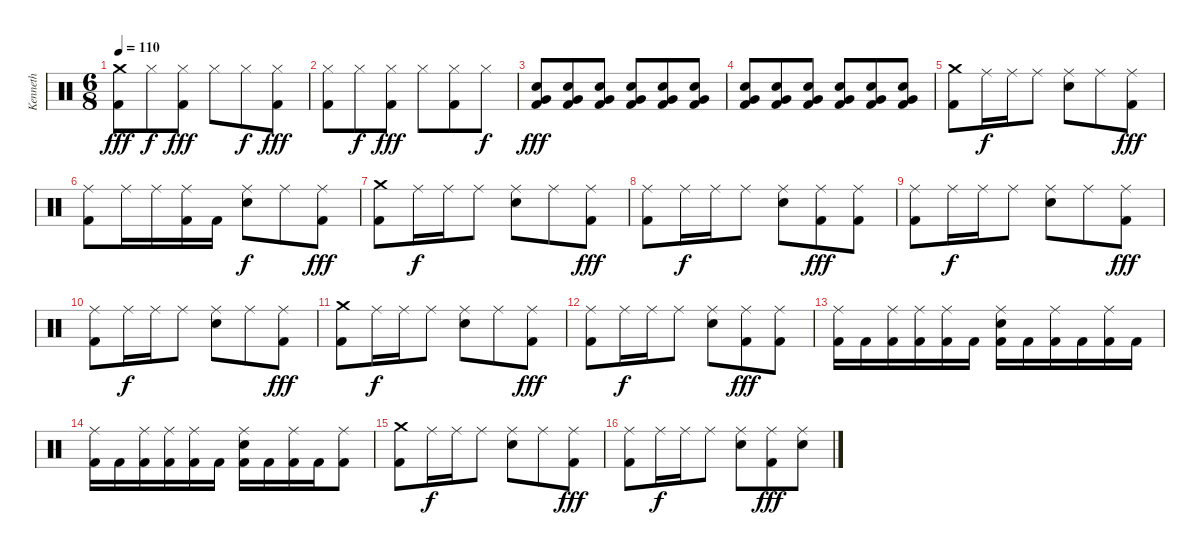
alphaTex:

\track ("Kenneth" "Kenneth") {instrument percussion}
\staff {score}
\articulation defaults
\ts (6 8)
\tempo 110
\clef neutral
\ks c
("Crash medium (hit)" "Kick (hit) 2").8{dy fff} "Hi-Hat (closed)".8{dy f} ("Hi-Hat (closed)" "Kick (hit) 2").8{dy fff} "Hi-Hat (closed)".8 "Hi-Hat (closed)".8{dy f} ("Hi-Hat (closed)" "Kick (hit) 2").8{dy fff} |
("Hi-Hat (closed)" "Kick (hit) 2").8 "Hi-Hat (closed)".8{dy f} ("Hi-Hat (closed)" "Kick (hit) 2").8{dy fff} "Hi-Hat (closed)".8 ("Hi-Hat (closed)" "Kick (hit) 2").8 "Hi-Hat (closed)".8{dy f} |
("Electric Snare (hit)" "Very Low Tom (hit)" "Kick (hit) 2").8{dy fff} ("Electric Snare (hit)" "Very Low Tom (hit)" "Kick (hit) 2").8 ("Electric Snare (hit)" "Very Low Tom (hit)" "Kick (hit) 2").8 ("Electric Snare (hit)" "Very Low Tom (hit)" "Kick (hit) 2").8 ("Electric Snare (hit)" "Very Low Tom (hit)" "Kick (hit) 2").8 ("Electric Snare (hit)" "Very Low Tom (hit)" "Kick (hit) 2").8 |
("Electric Snare (hit)" "Very Low Tom (hit)" "Kick (hit) 2").8 ("Electric Snare (hit)" "Very Low Tom (hit)" "Kick (hit) 2").8 ("Electric Snare (hit)" "Very Low Tom (hit)" "Kick (hit) 2").8 ("Electric Snare (hit)" "Very Low Tom (hit)" "Kick (hit) 2").8 ("Electric Snare (hit)" "Very Low Tom (hit)" "Kick (hit) 2").8 ("Electric Snare (hit)" "Very Low Tom (hit)" "Kick (hit) 2").8 |
("Crash medium (hit)" "Kick (hit) 2").8 "Ride (middle)".16{dy f} "Ride (middle)".16 "Ride (middle)".8 ("Ride (middle)" "Snare (hit) 2").8 "Ride (middle)".8 ("Ride (middle)" "Kick (hit) 2").8{dy fff} |
("Ride (middle)" "Kick (hit) 2").8 "Ride (middle)".16 "Ride (middle)".16 ("Ride (middle)" "Kick (hit) 2").16 "Kick (hit) 2".16 ("Ride (middle)" "Snare (hit) 2").8{dy f} "Ride (middle)".8 ("Ride (middle)" "Kick (hit) 2").8{dy fff} |
("Crash medium (hit)" "Kick (hit) 2").8 "Ride (middle)".16{dy f} "Ride (middle)".16 "Ride (middle)".8 ("Ride (middle)" "Snare (hit) 2").8 "Ride (middle)".8 ("Ride (middle)" "Kick (hit) 2").8{dy fff} |
("Ride (middle)" "Kick (hit) 2").8 "Ride (middle)".16{dy f} "Ride (middle)".16 "Ride (middle)".8 ("Ride (middle)" "Snare (hit) 2").8 ("Ride (middle)" "Kick (hit) 2").8{dy fff} ("Ride (middle)" "Kick (hit) 2").8 |
("Ride (middle)" "Kick (hit) 2").8 "Ride (middle)".16{dy f} "Ride (middle)".16 "Ride (middle)".8 ("Ride (middle)" "Snare (hit) 2").8 "Ride (middle)".8 ("Ride (middle)" "Kick (hit) 2").8{dy fff} |
("Ride (middle)" "Kick (hit) 2").8 "Ride (middle)".16{dy f} "Ride (middle)".16 "Ride (middle)".8 ("Ride (middle)" "Snare (hit) 2").8 "Ride (middle)".8 ("Ride (middle)" "Kick (hit) 2").8{dy fff} |
("Crash medium (hit)" "Kick (hit) 2").8 "Ride (middle)".16{dy f} "Ride (middle)".16 "Ride (middle)".8 ("Ride (middle)" "Snare (hit) 2").8 "Ride (middle)".8 ("Ride (middle)" "Kick (hit) 2").8{dy fff} |
("Ride (middle)" "Kick (hit) 2").8 "Ride (middle)".16{dy f} "Ride (middle)".16 "Ride (middle)".8 ("Ride (middle)" "Snare (hit) 2").8 ("Ride (middle)" "Kick (hit) 2").8{dy fff} ("Ride (middle)" "Kick (hit) 2").8 |
("Ride (middle)" "Kick (hit) 2").16 "Kick (hit) 2".16 ("Ride (middle)" "Kick (hit) 2").16 ("Ride (middle)" "Kick (hit) 2").16 ("Ride (middle)" "Kick (hit) 2").16 "Kick (hit) 2".16 ("Ride (middle)" "Snare (hit) 2" "Kick (hit) 2").16 "Kick (hit) 2".16 ("Ride (middle)" "Kick (hit) 2").16 "Kick (hit) 2".16 ("Ride (middle)" "Kick (hit) 2").16 "Kick (hit) 2".16 |
("Ride (middle)" "Kick (hit) 2").16 "Kick (hit) 2".16 ("Ride (middle)" "Kick (hit) 2").16 ("Ride (middle)" "Kick (hit) 2").16 ("Ride (middle)" "Kick (hit) 2").16 "Kick (hit) 2".16 ("Ride (middle)" "Snare (hit) 2" "Kick (hit) 2").16 "Kick (hit) 2".16 ("Ride (middle)" "Kick (hit) 2").16 "Kick (hit) 2".16 ("Ride (middle)" "Kick (hit) 2").8 |
("Crash medium (hit)" "Kick (hit) 2").8 "Ride (middle)".16{dy f} "Ride (middle)".16 "Ride (middle)".8 ("Ride (middle)" "Snare (hit) 2").8 "Ride (middle)".8 ("Ride (middle)" "Kick (hit) 2").8{dy fff} |
("Ride (middle)" "Kick (hit) 2").8 "Ride (middle)".16{dy f} "Ride (middle)".16 "Ride (middle)".8 ("Ride (middle)" "Snare (hit) 2").8 ("Ride (middle)" "Kick (hit) 2").8{dy fff} ("Ride (middle)" "Snare (hit) 2").8
